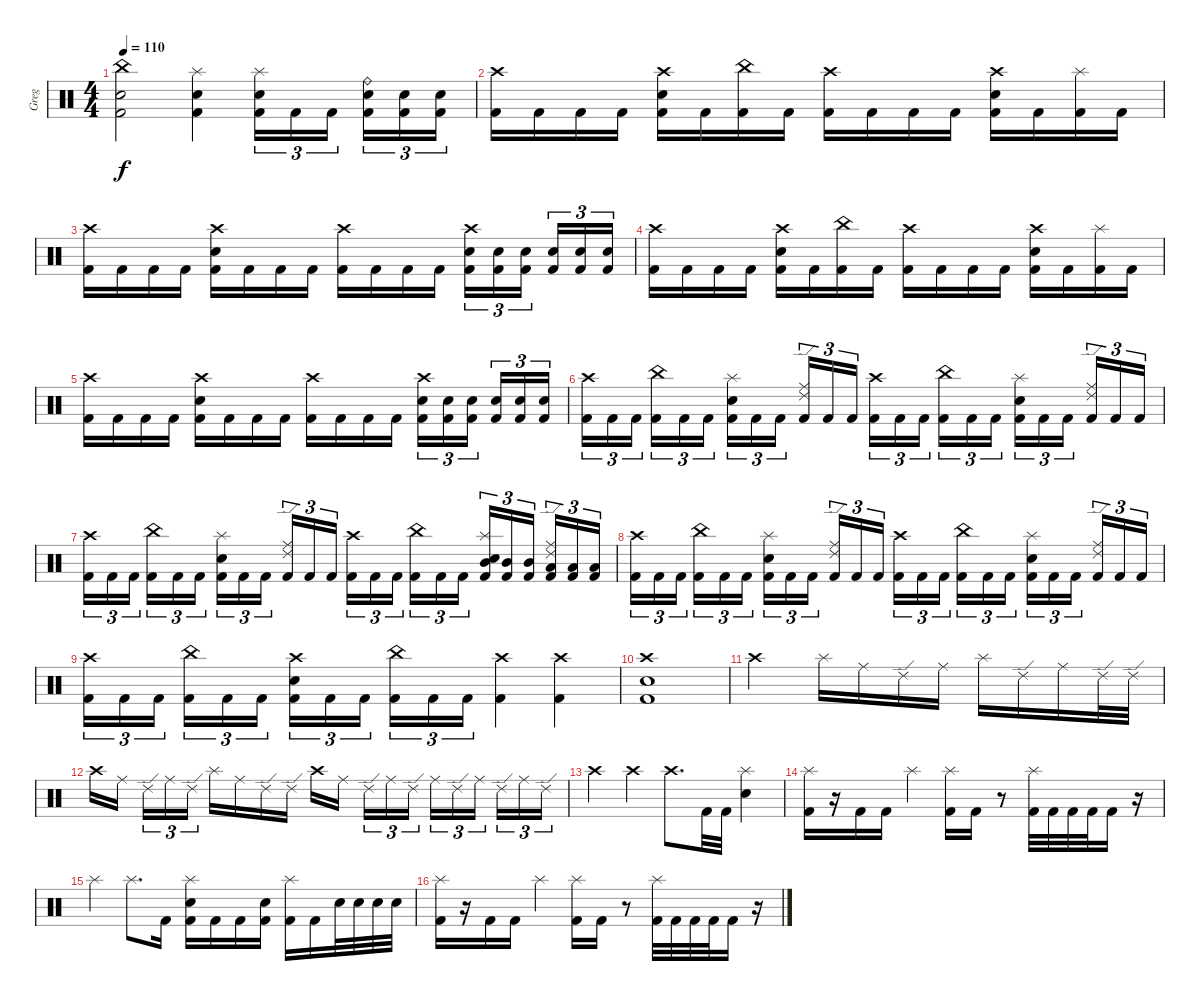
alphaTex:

\track ("Greg" "Greg") {instrument percussion}
\staff {score}
\articulation defaults
\ts (4 4)
\tempo 110
\clef neutral
\ks c
("China (hit)" "Snare (hit) 2" "Kick (hit) 2").2{dy f} ("Splash (hit)" "Snare (hit) 2" "Kick (hit) 2").4 ("Splash (hit)" "Snare (hit) 2" "Kick (hit) 2").16{tu (3 2)} "Kick (hit) 2".16{tu (3 2)} "Kick (hit) 2".16{tu (3 2) beam splitsecondary} ("Ride (bell)" "Snare (hit) 2" "Kick (hit) 2").16{tu (3 2)} ("Snare (hit) 2" "Kick (hit) 2").16{tu (3 2)} ("Snare (hit) 2" "Kick (hit) 2").16{tu (3 2)} |
("Crash high (hit)" "Kick (hit) 2").16 "Kick (hit) 2".16 "Kick (hit) 2".16 "Kick (hit) 2".16 ("Crash high (hit)" "Snare (hit) 2" "Kick (hit) 2").16 "Kick (hit) 2".16 ("China (hit)" "Kick (hit) 2").16 "Kick (hit) 2".16 ("Crash high (hit)" "Kick (hit) 2").16 "Kick (hit) 2".16 "Kick (hit) 2".16 "Kick (hit) 2".16 ("Crash high (hit)" "Snare (hit) 2" "Kick (hit) 2").16 "Kick (hit) 2".16 ("Splash (hit)" "Kick (hit) 2").16 "Kick (hit) 2".16 |
("Crash high (hit)" "Kick (hit) 2").16 "Kick (hit) 2".16 "Kick (hit) 2".16 "Kick (hit) 2".16 ("Crash high (hit)" "Snare (hit) 2" "Kick (hit) 2").16 "Kick (hit) 2".16 "Kick (hit) 2".16 "Kick (hit) 2".16 ("Crash high (hit)" "Kick (hit) 2").16 "Kick (hit) 2".16 "Kick (hit) 2".16 "Kick (hit) 2".16 ("Crash high (hit)" "Snare (hit) 2" "Kick (hit) 2").16{tu (3 2)} ("Snare (hit) 2" "Kick (hit) 2").16{tu (3 2)} ("Snare (hit) 2" "Kick (hit) 2").16{tu (3 2) beam splitsecondary} ("Snare (hit) 2" "Kick (hit) 2").16{tu (3 2)} ("Snare (hit) 2" "Kick (hit) 2").16{tu (3 2)} ("Snare (hit) 2" "Kick (hit) 2").16{tu (3 2)} |
("Crash high (hit)" "Kick (hit) 2").16 "Kick (hit) 2".16 "Kick (hit) 2".16 "Kick (hit) 2".16 ("Crash high (hit)" "Snare (hit) 2" "Kick (hit) 2").16 "Kick (hit) 2".16 ("China (hit)" "Kick (hit) 2").16 "Kick (hit) 2".16 ("Crash high (hit)" "Kick (hit) 2").16 "Kick (hit) 2".16 "Kick (hit) 2".16 "Kick (hit) 2".16 ("Crash high (hit)" "Snare (hit) 2" "Kick (hit) 2").16 "Kick (hit) 2".16 ("Splash (hit)" "Kick (hit) 2").16 "Kick (hit) 2".16 |
("Crash high (hit)" "Kick (hit) 2").16 "Kick (hit) 2".16 "Kick (hit) 2".16 "Kick (hit) 2".16 ("Crash high (hit)" "Snare (hit) 2" "Kick (hit) 2").16 "Kick (hit) 2".16 "Kick (hit) 2".16 "Kick (hit) 2".16 ("Crash high (hit)" "Kick (hit) 2").16 "Kick (hit) 2".16 "Kick (hit) 2".16 "Kick (hit) 2".16 ("Crash high (hit)" "Snare (hit) 2" "Kick (hit) 2").16{tu (3 2)} ("Snare (hit) 2" "Kick (hit) 2").16{tu (3 2)} ("Snare (hit) 2" "Kick (hit) 2").16{tu (3 2) beam splitsecondary} ("Snare (hit) 2" "Kick (hit) 2").16{tu (3 2)} ("Snare (hit) 2" "Kick (hit) 2").16{tu (3 2)} ("Snare (hit) 2" "Kick (hit) 2").16{tu (3 2)} |
("Crash high (hit)" "Kick (hit) 2").16{tu (3 2)} "Kick (hit) 2".16{tu (3 2)} "Kick (hit) 2".16{tu (3 2) beam splitsecondary} ("China (hit)" "Kick (hit) 2").16{tu (3 2)} "Kick (hit) 2".16{tu (3 2)} "Kick (hit) 2".16{tu (3 2)} ("Splash (hit)" "Snare (hit) 2" "Kick (hit) 2").16{tu (3 2)} "Kick (hit) 2".16{tu (3 2)} "Kick (hit) 2".16{tu (3 2) beam splitsecondary} ("Ride (middle)" "Ride (edge) 2" "Kick (hit) 2").16{tu (3 2)} "Kick (hit) 2".16{tu (3 2)} "Kick (hit) 2".16{tu (3 2)} ("Crash high (hit)" "Kick (hit) 2").16{tu (3 2)} "Kick (hit) 2".16{tu (3 2)} "Kick (hit) 2".16{tu (3 2) beam splitsecondary} ("China (hit)" "Kick (hit) 2").16{tu (3 2)} "Kick (hit) 2".16{tu (3 2)} "Kick (hit) 2".16{tu (3 2)} ("Splash (hit)" "Snare (hit) 2" "Kick (hit) 2").16{tu (3 2)} "Kick (hit) 2".16{tu (3 2)} "Kick (hit) 2".16{tu (3 2) beam splitsecondary} ("Ride (middle)" "Ride (edge) 2" "Kick (hit) 2").16{tu (3 2)} "Kick (hit) 2".16{tu (3 2)} "Kick (hit) 2".16{tu (3 2)} |
("Crash high (hit)" "Kick (hit) 2").16{tu (3 2)} "Kick (hit) 2".16{tu (3 2)} "Kick (hit) 2".16{tu (3 2) beam splitsecondary} ("China (hit)" "Kick (hit) 2").16{tu (3 2)} "Kick (hit) 2".16{tu (3 2)} "Kick (hit) 2".16{tu (3 2)} ("Splash (hit)" "Snare (hit) 2" "Kick (hit) 2").16{tu (3 2)} "Kick (hit) 2".16{tu (3 2)} "Kick (hit) 2".16{tu (3 2) beam splitsecondary} ("Ride (middle)" "Ride (edge) 2" "Kick (hit) 2").16{tu (3 2)} "Kick (hit) 2".16{tu (3 2)} "Kick (hit) 2".16{tu (3 2)} ("Crash high (hit)" "Kick (hit) 2").16{tu (3 2)} "Kick (hit) 2".16{tu (3 2)} "Kick (hit) 2".16{tu (3 2) beam splitsecondary} ("China (hit)" "Kick (hit) 2").16{tu (3 2)} "Kick (hit) 2".16{tu (3 2)} "Kick (hit) 2".16{tu (3 2)} ("Splash (hit)" "Mid Tom (hit)" "Snare (hit) 2" "Kick (hit) 2").16{tu (3 2)} ("Mid Tom (hit)" "Kick (hit) 2").16{tu (3 2)} ("Mid Tom (hit)" "Kick (hit) 2").16{tu (3 2) beam splitsecondary} ("Ride (middle)" "Ride (edge) 2" "Low Tom (hit)" "Kick (hit) 2").16{tu (3 2)} ("Low Tom (hit)" "Kick (hit) 2").16{tu (3 2)} ("Low Tom (hit)" "Kick (hit) 2").16{tu (3 2)} |
("Crash high (hit)" "Kick (hit) 2").16{tu (3 2)} "Kick (hit) 2".16{tu (3 2)} "Kick (hit) 2".16{tu (3 2) beam splitsecondary} ("China (hit)" "Kick (hit) 2").16{tu (3 2)} "Kick (hit) 2".16{tu (3 2)} "Kick (hit) 2".16{tu (3 2)} ("Splash (hit)" "Snare (hit) 2" "Kick (hit) 2").16{tu (3 2)} "Kick (hit) 2".16{tu (3 2)} "Kick (hit) 2".16{tu (3 2) beam splitsecondary} ("Ride (middle)" "Ride (edge) 2" "Kick (hit) 2").16{tu (3 2)} "Kick (hit) 2".16{tu (3 2)} "Kick (hit) 2".16{tu (3 2)} ("Crash high (hit)" "Kick (hit) 2").16{tu (3 2)} "Kick (hit) 2".16{tu (3 2)} "Kick (hit) 2".16{tu (3 2) beam splitsecondary} ("China (hit)" "Kick (hit) 2").16{tu (3 2)} "Kick (hit) 2".16{tu (3 2)} "Kick (hit) 2".16{tu (3 2)} ("Splash (hit)" "Snare (hit) 2" "Kick (hit) 2").16{tu (3 2)} "Kick (hit) 2".16{tu (3 2)} "Kick (hit) 2".16{tu (3 2) beam splitsecondary} ("Ride (middle)" "Ride (edge) 2" "Kick (hit) 2").16{tu (3 2)} "Kick (hit) 2".16{tu (3 2)} "Kick (hit) 2".16{tu (3 2)} |
("Crash high (hit)" "Kick (hit) 2").16{tu (3 2)} "Kick (hit) 2".16{tu (3 2)} "Kick (hit) 2".16{tu (3 2) beam splitsecondary} ("China (hit)" "Kick (hit) 2").16{tu (3 2)} "Kick (hit) 2".16{tu (3 2)} "Kick (hit) 2".16{tu (3 2)} ("Crash high (hit)" "Snare (hit) 2" "Kick (hit) 2").16{tu (3 2)} "Kick (hit) 2".16{tu (3 2)} "Kick (hit) 2".16{tu (3 2) beam splitsecondary} ("China (hit)" "Kick (hit) 2").16{tu (3 2)} "Kick (hit) 2".16{tu (3 2)} "Kick (hit) 2".16{tu (3 2)} ("Crash high (hit)" "Kick (hit) 2").4 ("Crash high (hit)" "Kick (hit) 2").4 |
("Crash high (hit)" "Snare (hit) 2" "Kick (hit) 2").1 |
"Crash high (hit)".2 "Splash (hit)".16 "Ride (middle)".16 "Ride (edge) 2".16 "Ride (middle)".16 "Splash (hit)".16 "Ride (edge) 2".16 "Ride (middle)".16 "Ride (edge) 2".32 "Ride (edge) 2".32 |
"Crash high (hit)".16 "Ride (middle)".16{beam splitsecondary} "Ride (edge) 2".16{tu (3 2)} "Ride (middle)".16{tu (3 2)} "Ride (edge) 2".16{tu (3 2)} "Splash (hit)".16 "Ride (middle)".16 "Ride (edge) 2".16 "Ride (edge) 2".16 "Crash high (hit)".16 "Ride (middle)".16{beam splitsecondary} "Ride (edge) 2".16{tu (3 2)} "Ride (middle)".16{tu (3 2)} "Ride (edge) 2".16{tu (3 2)} "Ride (middle)".16{tu (3 2)} "Ride (edge) 2".16{tu (3 2)} "Ride (middle)".16{tu (3 2) beam splitsecondary} "Ride (edge) 2".16{tu (3 2)} "Ride (middle)".16{tu (3 2)} "Ride (edge) 2".16{tu (3 2)} |
"Crash high (hit)".4 "Crash high (hit)".4 "Crash high (hit)".8{d} "Kick (hit) 2".32 "Kick (hit) 2".32 ("Splash (hit)" "Snare (hit) 2").4 |
("Splash (hit)" "Kick (hit) 2").16 r.16 "Kick (hit) 2".16 "Kick (hit) 2".16 "Splash (hit)".4 ("Splash (hit)" "Kick (hit) 2").16 "Kick (hit) 2".16 r.8 ("Splash (hit)" "Kick (hit) 2").32 "Kick (hit) 2".32 "Kick (hit) 2".32 "Kick (hit) 2".32 "Kick (hit) 2".16 r.16 |
"Splash (hit)".4 "Splash (hit)".8{d} "Kick (hit) 2".16 ("Splash (hit)" "Snare (hit) 2" "Kick (hit) 2").16 "Kick (hit) 2".16 "Kick (hit) 2".16 ("Snare (hit) 2" "Kick (hit) 2").16 ("Splash (hit)" "Kick (hit) 2").16 "Kick (hit) 2".16 "Snare (hit) 2".32 "Snare (hit) 2".32 "Snare (hit) 2".32 "Snare (hit) 2".32 |
("Splash (hit)" "Kick (hit) 2").16 r.16 "Kick (hit) 2".16 "Kick (hit) 2".16 "Splash (hit)".4 ("Splash (hit)" "Kick (hit) 2").16 "Kick (hit) 2".16 r.8 ("Splash (hit)" "Kick (hit) 2").32 "Kick (hit) 2".32 "Kick (hit) 2".32 "Kick (hit) 2".32 "Kick (hit) 2".16 r.16
